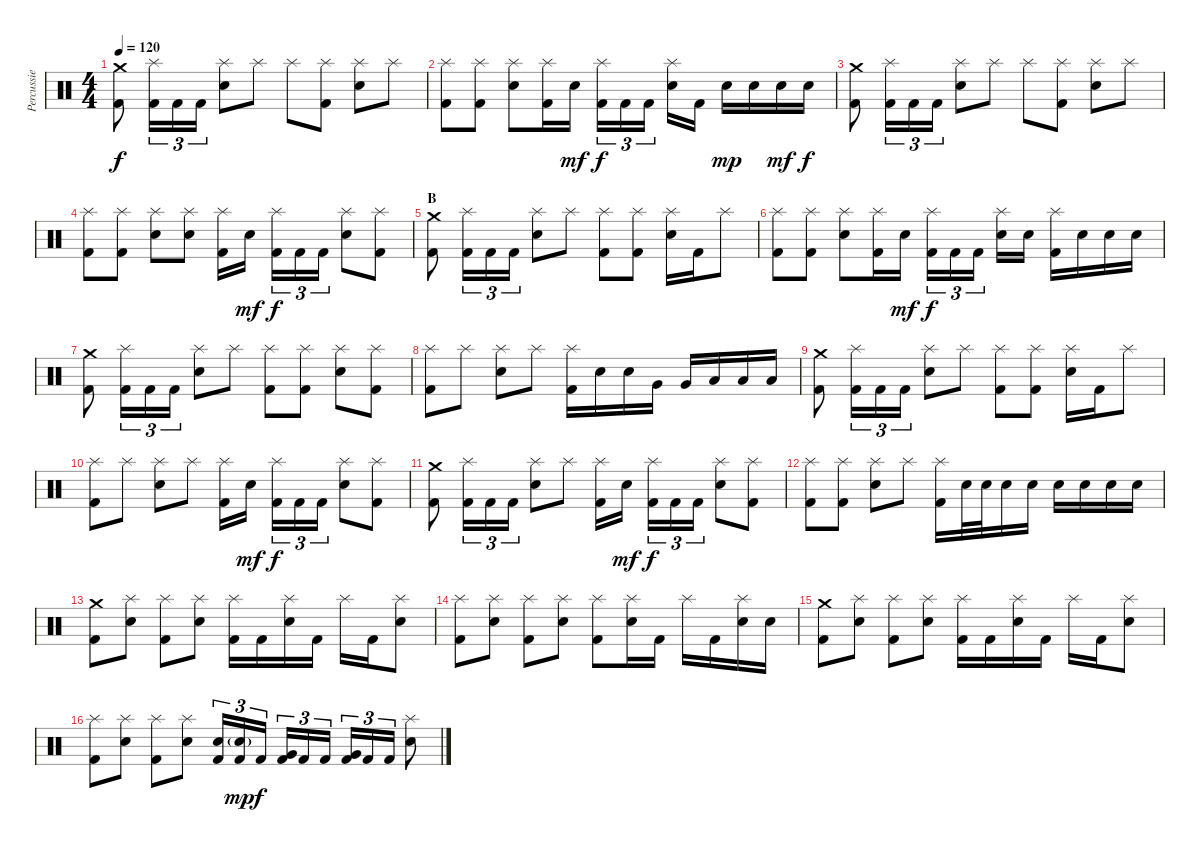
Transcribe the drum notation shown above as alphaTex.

\track ("Percussie" "Percussie") {instrument percussion}
\staff {score}
\articulation defaults
\ts (4 4)
\tempo 120
\clef neutral
\ks c
("Crash medium (hit)" "Kick (hit) 2").8{dy f} ("Splash (hit)" "Kick (hit) 2").16{tu (3 2)} "Kick (hit) 2".16{tu (3 2)} "Kick (hit) 2".16{tu (3 2)} ("Splash (hit)" "Electric Snare (hit)").8 "Splash (hit)".8 "Splash (hit)".8 ("Splash (hit)" "Kick (hit) 2").8 ("Splash (hit)" "Electric Snare (hit)").8 "Splash (hit)".8 |
("Splash (hit)" "Kick (hit) 2").8 ("Splash (hit)" "Kick (hit) 2").8 ("Splash (hit)" "Electric Snare (hit)").8 ("Splash (hit)" "Kick (hit) 2").16 "Electric Snare (hit)".16{dy mf} ("Splash (hit)" "Kick (hit) 2").16{tu (3 2) dy f} "Kick (hit) 2".16{tu (3 2)} "Kick (hit) 2".16{tu (3 2)} ("Splash (hit)" "Electric Snare (hit)").16 "Kick (hit) 2".16 "Electric Snare (hit)".16{dy mp} "Electric Snare (hit)".16 "Electric Snare (hit)".16{dy mf} "Electric Snare (hit)".16{dy f} |
("Crash medium (hit)" "Kick (hit) 2").8 ("Splash (hit)" "Kick (hit) 2").16{tu (3 2)} "Kick (hit) 2".16{tu (3 2)} "Kick (hit) 2".16{tu (3 2)} ("Splash (hit)" "Electric Snare (hit)").8 "Splash (hit)".8 "Splash (hit)".8 ("Splash (hit)" "Kick (hit) 2").8 ("Splash (hit)" "Electric Snare (hit)").8 "Splash (hit)".8 |
("Splash (hit)" "Kick (hit) 2").8 ("Splash (hit)" "Kick (hit) 2").8 ("Splash (hit)" "Electric Snare (hit)").8 ("Splash (hit)" "Electric Snare (hit)").8 ("Splash (hit)" "Kick (hit) 2").16 "Electric Snare (hit)".16{dy mf} ("Splash (hit)" "Kick (hit) 2").16{tu (3 2) dy f} "Kick (hit) 2".16{tu (3 2)} "Kick (hit) 2".16{tu (3 2)} ("Splash (hit)" "Electric Snare (hit)").8 ("Splash (hit)" "Kick (hit) 2").8 |
\section ("" "B")
("Crash medium (hit)" "Kick (hit) 2").8 ("Splash (hit)" "Kick (hit) 2").16{tu (3 2)} "Kick (hit) 2".16{tu (3 2)} "Kick (hit) 2".16{tu (3 2)} ("Splash (hit)" "Electric Snare (hit)").8 "Splash (hit)".8 ("Splash (hit)" "Kick (hit) 2").8 ("Splash (hit)" "Kick (hit) 2").8 ("Splash (hit)" "Electric Snare (hit)").16 "Kick (hit) 2".16 "Splash (hit)".8 |
("Splash (hit)" "Kick (hit) 2").8 ("Splash (hit)" "Kick (hit) 2").8 ("Splash (hit)" "Electric Snare (hit)").8 ("Splash (hit)" "Kick (hit) 2").16 "Electric Snare (hit)".16{dy mf} ("Splash (hit)" "Kick (hit) 2").16{tu (3 2) dy f} "Kick (hit) 2".16{tu (3 2)} "Kick (hit) 2".16{tu (3 2)} ("Splash (hit)" "Electric Snare (hit)").16 "Electric Snare (hit)".16 ("Splash (hit)" "Kick (hit) 2").16 "Electric Snare (hit)".16 "Electric Snare (hit)".16 "Electric Snare (hit)".16 |
("Crash medium (hit)" "Kick (hit) 2").8 ("Splash (hit)" "Kick (hit) 2").16{tu (3 2)} "Kick (hit) 2".16{tu (3 2)} "Kick (hit) 2".16{tu (3 2)} ("Splash (hit)" "Electric Snare (hit)").8 "Splash (hit)".8 ("Splash (hit)" "Kick (hit) 2").8 ("Splash (hit)" "Kick (hit) 2").8 ("Splash (hit)" "Electric Snare (hit)").8 ("Splash (hit)" "Kick (hit) 2").8 |
("Splash (hit)" "Kick (hit) 2").8 "Splash (hit)".8 ("Splash (hit)" "Electric Snare (hit)").8 "Splash (hit)".8 ("Splash (hit)" "Kick (hit) 2").16 "Electric Snare (hit)".16 "Electric Snare (hit)".16 "Very Low Tom (hit)".16 "Very Low Tom (hit)".16 "Low Floor Tom (hit)".16 "Low Floor Tom (hit)".16 "Low Floor Tom (hit)".16 |
("Crash medium (hit)" "Kick (hit) 2").8 ("Splash (hit)" "Kick (hit) 2").16{tu (3 2)} "Kick (hit) 2".16{tu (3 2)} "Kick (hit) 2".16{tu (3 2)} ("Splash (hit)" "Electric Snare (hit)").8 "Splash (hit)".8 ("Splash (hit)" "Kick (hit) 2").8 ("Splash (hit)" "Kick (hit) 2").8 ("Splash (hit)" "Electric Snare (hit)").16 "Kick (hit) 2".16 "Splash (hit)".8 |
("Splash (hit)" "Kick (hit) 2").8 "Splash (hit)".8 ("Splash (hit)" "Electric Snare (hit)").8 "Splash (hit)".8 ("Splash (hit)" "Kick (hit) 2").16 "Electric Snare (hit)".16{dy mf} ("Splash (hit)" "Kick (hit) 2").16{tu (3 2) dy f} "Kick (hit) 2".16{tu (3 2)} "Kick (hit) 2".16{tu (3 2)} ("Splash (hit)" "Electric Snare (hit)").8 ("Splash (hit)" "Kick (hit) 2").8 |
("Crash medium (hit)" "Kick (hit) 2").8 ("Splash (hit)" "Kick (hit) 2").16{tu (3 2)} "Kick (hit) 2".16{tu (3 2)} "Kick (hit) 2".16{tu (3 2)} ("Splash (hit)" "Electric Snare (hit)").8 "Splash (hit)".8 ("Splash (hit)" "Kick (hit) 2").16 "Electric Snare (hit)".16{dy mf} ("Splash (hit)" "Kick (hit) 2").16{tu (3 2) dy f} "Kick (hit) 2".16{tu (3 2)} "Kick (hit) 2".16{tu (3 2)} ("Splash (hit)" "Electric Snare (hit)").8 ("Splash (hit)" "Kick (hit) 2").8 |
("Splash (hit)" "Kick (hit) 2").8 ("Splash (hit)" "Kick (hit) 2").8 ("Splash (hit)" "Electric Snare (hit)").8 "Splash (hit)".8 ("Splash (hit)" "Kick (hit) 2").16 "Electric Snare (hit)".32 "Electric Snare (hit)".32 "Electric Snare (hit)".16 "Electric Snare (hit)".16 "Electric Snare (hit)".16 "Electric Snare (hit)".16 "Electric Snare (hit)".16 "Electric Snare (hit)".16 |
("Crash medium (hit)" "Kick (hit) 2").8 ("Splash (hit)" "Electric Snare (hit)").8 ("Splash (hit)" "Kick (hit) 2").8 ("Splash (hit)" "Electric Snare (hit)").8 ("Splash (hit)" "Kick (hit) 2").16 "Kick (hit) 2".16 ("Splash (hit)" "Electric Snare (hit)").16 "Kick (hit) 2".16 "Splash (hit)".16 "Kick (hit) 2".16 ("Splash (hit)" "Electric Snare (hit)").8 |
("Splash (hit)" "Kick (hit) 2").8 ("Splash (hit)" "Electric Snare (hit)").8 ("Splash (hit)" "Kick (hit) 2").8 ("Splash (hit)" "Electric Snare (hit)").8 ("Splash (hit)" "Kick (hit) 2").8 ("Splash (hit)" "Electric Snare (hit)").16 "Kick (hit) 2".16 "Splash (hit)".16 "Kick (hit) 2".16 ("Splash (hit)" "Electric Snare (hit)").16 "Electric Snare (hit)".16 |
("Crash medium (hit)" "Kick (hit) 2").8 ("Splash (hit)" "Electric Snare (hit)").8 ("Splash (hit)" "Kick (hit) 2").8 ("Splash (hit)" "Electric Snare (hit)").8 ("Splash (hit)" "Kick (hit) 2").16 "Kick (hit) 2".16 ("Splash (hit)" "Electric Snare (hit)").16 "Kick (hit) 2".16 "Splash (hit)".16 "Kick (hit) 2".16 ("Splash (hit)" "Electric Snare (hit)").8 |
("Splash (hit)" "Kick (hit) 2").8 ("Splash (hit)" "Electric Snare (hit)").8 ("Splash (hit)" "Kick (hit) 2").8 ("Splash (hit)" "Electric Snare (hit)").8 ("Electric Snare (hit)" "Kick (hit) 2").16{tu (3 2)} ("Electric Snare (hit)"{g} "Kick (hit) 2").16{tu (3 2) dy mp} "Kick (hit) 2".16{tu (3 2) dy f} ("Very Low Tom (hit)" "Kick (hit) 2").16{tu (3 2)} "Kick (hit) 2".16{tu (3 2)} "Kick (hit) 2".16{tu (3 2)} ("Very Low Tom (hit)" "Kick (hit) 2").16{tu (3 2)} "Kick (hit) 2".16{tu (3 2)} "Kick (hit) 2".16{tu (3 2)} ("Splash (hit)" "Electric Snare (hit)").8
